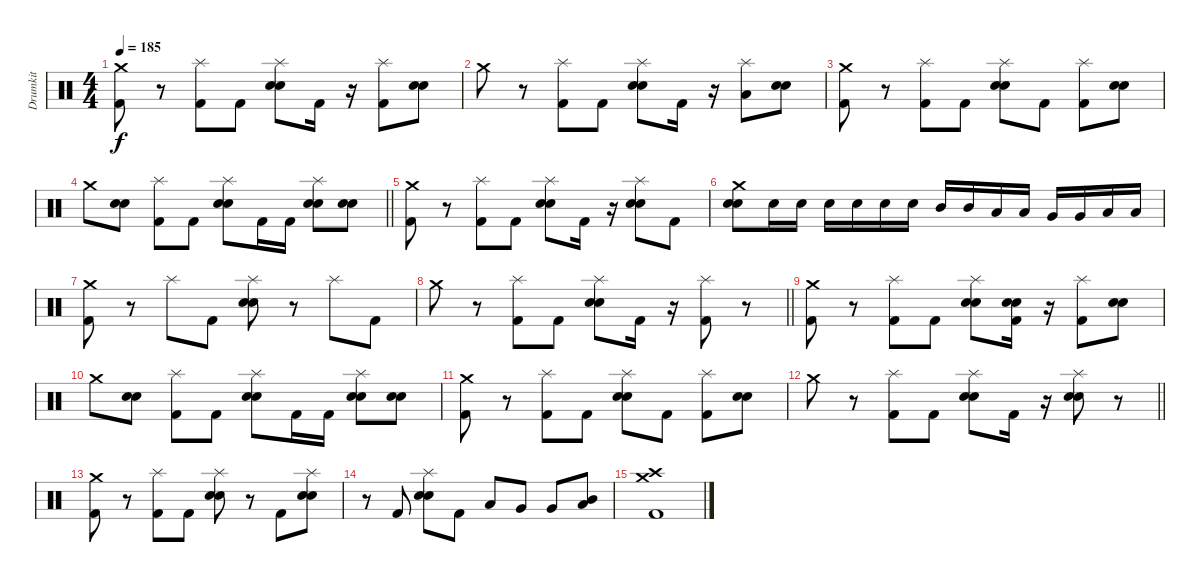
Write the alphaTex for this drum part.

\track ("Drumkit" "Drumkit") {instrument percussion}
\staff {score}
\articulation defaults
\ts (4 4)
\tempo 185
\clef neutral
\ks c
("Crash medium (hit)" "Kick (hit) 2").8{dy f} r.8 ("Splash (hit)" "Kick (hit) 2").8 "Kick (hit) 2".8 ("Splash (hit)" "Electric Snare (hit)" "Snare (hit) 2").8 "Kick (hit) 2".16 r.16 ("Splash (hit)" "Kick (hit) 2").8 ("Electric Snare (hit)" "Snare (hit) 2").8 |
"Crash medium (hit)".8 r.8 ("Splash (hit)" "Kick (hit) 2").8 "Kick (hit) 2".8 ("Splash (hit)" "Electric Snare (hit)" "Snare (hit) 2").8 "Kick (hit) 2".16 r.16 ("Splash (hit)" "Low Tom (hit)").8 ("Electric Snare (hit)" "Snare (hit) 2").8 |
("Crash medium (hit)" "Kick (hit) 2").8 r.8 ("Splash (hit)" "Kick (hit) 2").8 "Kick (hit) 2".8 ("Splash (hit)" "Electric Snare (hit)" "Snare (hit) 2").8 "Kick (hit) 2".8 ("Splash (hit)" "Kick (hit) 2").8 ("Electric Snare (hit)" "Snare (hit) 2").8 |
\barLineRight lightlight "Crash medium (hit)".8
("Electric Snare (hit)" "Snare (hit) 2").8 ("Splash (hit)" "Kick (hit) 2").8 "Kick (hit) 2".8 ("Splash (hit)" "Electric Snare (hit)" "Snare (hit) 2").8 "Kick (hit) 2".16 "Kick (hit) 2".16 ("Splash (hit)" "Electric Snare (hit)" "Snare (hit) 2").8 ("Electric Snare (hit)" "Snare (hit) 2").8 |
("Crash medium (hit)" "Kick (hit) 2").8 r.8 ("Splash (hit)" "Kick (hit) 2").8 "Kick (hit) 2".8 ("Splash (hit)" "Electric Snare (hit)" "Snare (hit) 2").8 "Kick (hit) 2".16 r.16 ("Splash (hit)" "Electric Snare (hit)" "Snare (hit) 2").8 "Kick (hit) 2".8 |
("Crash medium (hit)" "Electric Snare (hit)" "Snare (hit) 2").8 "Electric Snare (hit)".16 "Electric Snare (hit)".16 "Electric Snare (hit)".16 "Electric Snare (hit)".16 "Electric Snare (hit)".16 "Electric Snare (hit)".16 "Mid Tom (hit)".16 "Mid Tom (hit)".16 "Low Tom (hit)".16 "Low Tom (hit)".16 "Very Low Tom (hit)".16 "Very Low Tom (hit)".16 "Low Floor Tom (hit)".16 "Low Floor Tom (hit)".16 |
("Crash medium (hit)" "Kick (hit) 2").8 r.8 "Splash (hit)".8 "Kick (hit) 2".8 ("Splash (hit)" "Electric Snare (hit)" "Snare (hit) 2").8 r.8 "Splash (hit)".8 "Kick (hit) 2".8 |
\barLineRight lightlight "Crash medium (hit)".8
r.8 ("Splash (hit)" "Kick (hit) 2").8 "Kick (hit) 2".8 ("Splash (hit)" "Electric Snare (hit)" "Snare (hit) 2").8 "Kick (hit) 2".16 r.16 ("Splash (hit)" "Kick (hit) 2").8 r.8 |
("Crash medium (hit)" "Kick (hit) 2").8 r.8 ("Splash (hit)" "Kick (hit) 2").8 "Kick (hit) 2".8 ("Splash (hit)" "Electric Snare (hit)" "Snare (hit) 2").8 ("Electric Snare (hit)" "Snare (hit) 2" "Kick (hit) 2").16 r.16 ("Splash (hit)" "Kick (hit) 2").8 ("Electric Snare (hit)" "Snare (hit) 2").8 |
"Crash medium (hit)".8 ("Electric Snare (hit)" "Snare (hit) 2").8 ("Splash (hit)" "Kick (hit) 2").8 "Kick (hit) 2".8 ("Splash (hit)" "Electric Snare (hit)" "Snare (hit) 2").8 "Kick (hit) 2".16 "Kick (hit) 2".16 ("Splash (hit)" "Electric Snare (hit)" "Snare (hit) 2").8 ("Electric Snare (hit)" "Snare (hit) 2").8 |
("Crash medium (hit)" "Kick (hit) 2").8 r.8 ("Splash (hit)" "Kick (hit) 2").8 "Kick (hit) 2".8 ("Splash (hit)" "Electric Snare (hit)" "Snare (hit) 2").8 "Kick (hit) 2".8 ("Splash (hit)" "Kick (hit) 2").8 ("Electric Snare (hit)" "Snare (hit) 2").8 |
\barLineRight lightlight "Crash medium (hit)".8
r.8 ("Splash (hit)" "Kick (hit) 2").8 "Kick (hit) 2".8 ("Splash (hit)" "Electric Snare (hit)" "Snare (hit) 2").8 "Kick (hit) 2".16 r.16 ("Splash (hit)" "Electric Snare (hit)" "Snare (hit) 2").8 r.8 |
("Crash medium (hit)" "Kick (hit) 2").8 r.8 ("Splash (hit)" "Kick (hit) 2").8 "Kick (hit) 2".8 ("Splash (hit)" "Electric Snare (hit)" "Snare (hit) 2").8 r.8 "Kick (hit) 2".8 ("Splash (hit)" "Electric Snare (hit)" "Snare (hit) 2").8 |
r.8 "Kick (hit) 2".8 ("Splash (hit)" "Electric Snare (hit)" "Snare (hit) 2").8 "Kick (hit) 2".8 "Low Tom (hit)".8 "Very Low Tom (hit)".8 "Very Low Tom (hit)".8 ("Mid Tom (hit)" "Low Floor Tom (hit)").8 |
("Crash medium (hit)" "Crash high (hit)" "Kick (hit) 2").1
